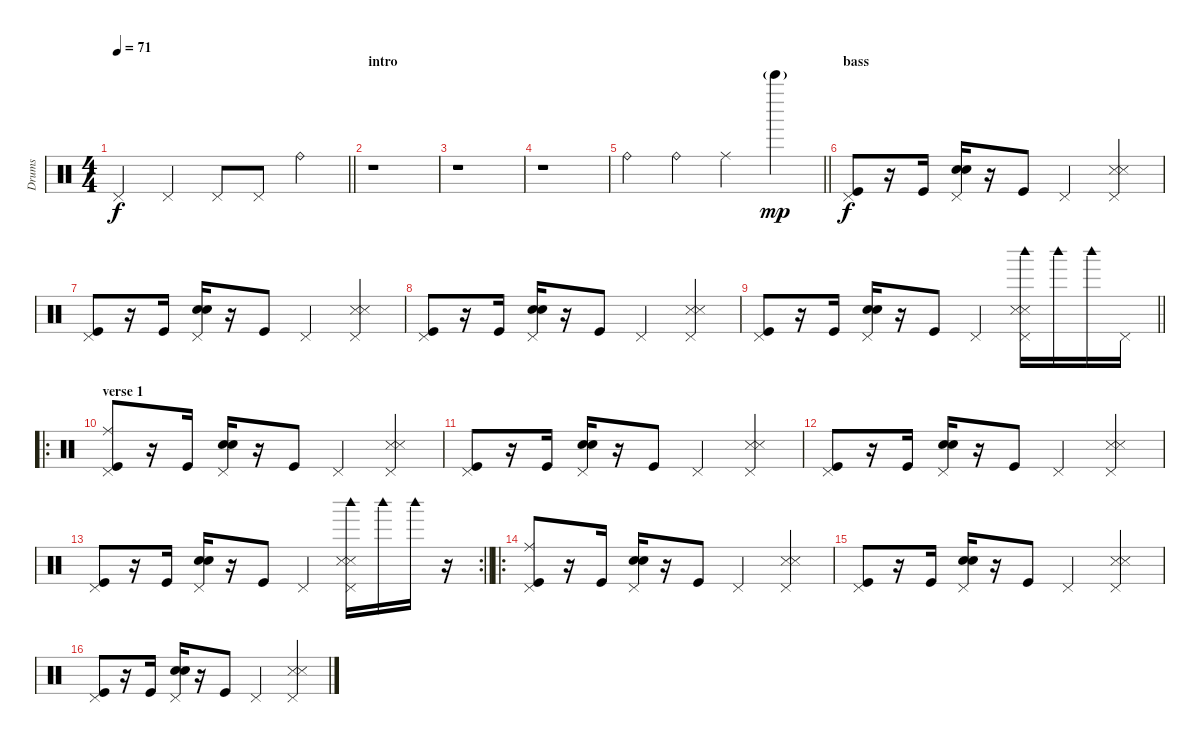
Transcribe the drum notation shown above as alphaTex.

\track ("Drums" "Drums") {instrument percussion}
\staff {score}
\articulation defaults
\ts (4 4)
\tempo 71
\clef neutral
\barLineRight lightlight
\ks c "Pedal Hi-Hat (hit)".4{dy f} "Pedal Hi-Hat (hit)".4 "Pedal Hi-Hat (hit)".8 "Pedal Hi-Hat (hit)".8 "Ride (bell)".4
|
\section ("" "intro")
r.1 |
r.1 |
r.1 |
\barLineRight lightlight "Ride (bell)".4 "Ride (bell)".4 "Ride (middle)".4 "Bell Tree (hit)"{g}.4{dy mp}
|
\section ("" "bass")
("Pedal Hi-Hat (hit)" "Kick (hit)").8{dy f} r.16 "Kick (hit)".16 ("Pedal Hi-Hat (hit)" "Metronome (bell)" "Metronome (bell)").16 r.16 "Kick (hit)".8 "Pedal Hi-Hat (hit)".4 ("Pedal Hi-Hat (hit)" "Snare (side stick) 3" "Snare (side stick) 3").4 |
("Pedal Hi-Hat (hit)" "Kick (hit)").8 r.16 "Kick (hit)".16 ("Pedal Hi-Hat (hit)" "Metronome (bell)" "Metronome (bell)").16 r.16 "Kick (hit)".8 "Pedal Hi-Hat (hit)".4 ("Pedal Hi-Hat (hit)" "Snare (side stick) 3" "Snare (side stick) 3").4 |
("Pedal Hi-Hat (hit)" "Kick (hit)").8 r.16 "Kick (hit)".16 ("Pedal Hi-Hat (hit)" "Metronome (bell)" "Metronome (bell)").16 r.16 "Kick (hit)".8 "Pedal Hi-Hat (hit)".4 ("Pedal Hi-Hat (hit)" "Snare (side stick) 3" "Snare (side stick) 3").4 |
\barLineRight lightlight
("Pedal Hi-Hat (hit)" "Kick (hit)").8 r.16 "Kick (hit)".16 ("Pedal Hi-Hat (hit)" "Metronome (bell)" "Metronome (bell)").16 r.16 "Kick (hit)".8 "Pedal Hi-Hat (hit)".4 ("Pedal Hi-Hat (hit)" "Snare (side stick) 3" "Snare (side stick) 3" "Woodblock high (hit)").16 "Woodblock high (hit)".16 "Woodblock high (hit)".16 "Pedal Hi-Hat (hit)".16 |
\ro
\section ("" "verse 1")
("Pedal Hi-Hat (hit)" "Ride (middle)" "Kick (hit)").8 r.16 "Kick (hit)".16 ("Pedal Hi-Hat (hit)" "Metronome (bell)" "Metronome (bell)").16 r.16 "Kick (hit)".8 "Pedal Hi-Hat (hit)".4 ("Pedal Hi-Hat (hit)" "Snare (side stick) 3" "Snare (side stick) 3").4 |
("Pedal Hi-Hat (hit)" "Kick (hit)").8 r.16 "Kick (hit)".16 ("Pedal Hi-Hat (hit)" "Metronome (bell)" "Metronome (bell)").16 r.16 "Kick (hit)".8 "Pedal Hi-Hat (hit)".4 ("Pedal Hi-Hat (hit)" "Snare (side stick) 3" "Snare (side stick) 3").4 |
("Pedal Hi-Hat (hit)" "Kick (hit)").8 r.16 "Kick (hit)".16 ("Pedal Hi-Hat (hit)" "Metronome (bell)" "Metronome (bell)").16 r.16 "Kick (hit)".8 "Pedal Hi-Hat (hit)".4 ("Pedal Hi-Hat (hit)" "Snare (side stick) 3" "Snare (side stick) 3").4 |
\rc 2
\barLineRight lightlight
("Pedal Hi-Hat (hit)" "Kick (hit)").8 r.16 "Kick (hit)".16 ("Pedal Hi-Hat (hit)" "Metronome (bell)" "Metronome (bell)").16 r.16 "Kick (hit)".8 "Pedal Hi-Hat (hit)".4 ("Pedal Hi-Hat (hit)" "Snare (side stick) 3" "Snare (side stick) 3" "Woodblock high (hit)").16 "Woodblock high (hit)".16 "Woodblock high (hit)".16 r.16 |
\ro
("Pedal Hi-Hat (hit)" "Ride (middle)" "Kick (hit)").8 r.16 "Kick (hit)".16 ("Pedal Hi-Hat (hit)" "Metronome (bell)" "Metronome (bell)").16 r.16 "Kick (hit)".8 "Pedal Hi-Hat (hit)".4 ("Pedal Hi-Hat (hit)" "Snare (side stick) 3" "Snare (side stick) 3").4 |
("Pedal Hi-Hat (hit)" "Kick (hit)").8 r.16 "Kick (hit)".16 ("Pedal Hi-Hat (hit)" "Metronome (bell)" "Metronome (bell)").16 r.16 "Kick (hit)".8 "Pedal Hi-Hat (hit)".4 ("Pedal Hi-Hat (hit)" "Snare (side stick) 3" "Snare (side stick) 3").4 |
("Pedal Hi-Hat (hit)" "Kick (hit)").8 r.16 "Kick (hit)".16 ("Pedal Hi-Hat (hit)" "Metronome (bell)" "Metronome (bell)").16 r.16 "Kick (hit)".8 "Pedal Hi-Hat (hit)".4 ("Pedal Hi-Hat (hit)" "Snare (side stick) 3" "Snare (side stick) 3").4
